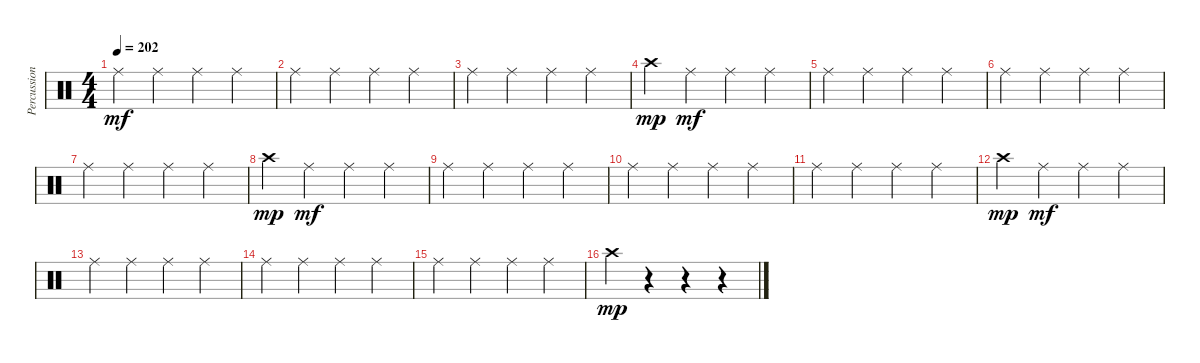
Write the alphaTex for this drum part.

\track ("Percussion2" "Percussion") {instrument percussion}
\staff {score}
\articulation defaults
\ts (4 4)
\tempo 202
\clef neutral
\ks c "Ride (middle)".4{dy mf} "Ride (middle)".4 "Ride (middle)".4 "Ride (middle)".4
|
"Ride (middle)".4 "Ride (middle)".4 "Ride (middle)".4 "Ride (middle)".4 |
"Ride (middle)".4 "Ride (middle)".4 "Ride (middle)".4 "Ride (middle)".4 |
"Crash high (hit)".4{dy mp} "Ride (middle)".4{dy mf} "Ride (middle)".4 "Ride (middle)".4 |
"Ride (middle)".4 "Ride (middle)".4 "Ride (middle)".4 "Ride (middle)".4 |
"Ride (middle)".4 "Ride (middle)".4 "Ride (middle)".4 "Ride (middle)".4 |
"Ride (middle)".4 "Ride (middle)".4 "Ride (middle)".4 "Ride (middle)".4 |
"Crash high (hit)".4{dy mp} "Ride (middle)".4{dy mf} "Ride (middle)".4 "Ride (middle)".4 |
"Ride (middle)".4 "Ride (middle)".4 "Ride (middle)".4 "Ride (middle)".4 |
"Ride (middle)".4 "Ride (middle)".4 "Ride (middle)".4 "Ride (middle)".4 |
"Ride (middle)".4 "Ride (middle)".4 "Ride (middle)".4 "Ride (middle)".4 |
"Crash high (hit)".4{dy mp} "Ride (middle)".4{dy mf} "Ride (middle)".4 "Ride (middle)".4 |
"Ride (middle)".4 "Ride (middle)".4 "Ride (middle)".4 "Ride (middle)".4 |
"Ride (middle)".4 "Ride (middle)".4 "Ride (middle)".4 "Ride (middle)".4 |
"Ride (middle)".4 "Ride (middle)".4 "Ride (middle)".4 "Ride (middle)".4 |
"Crash high (hit)".4{dy mp} r.4 r.4 r.4
